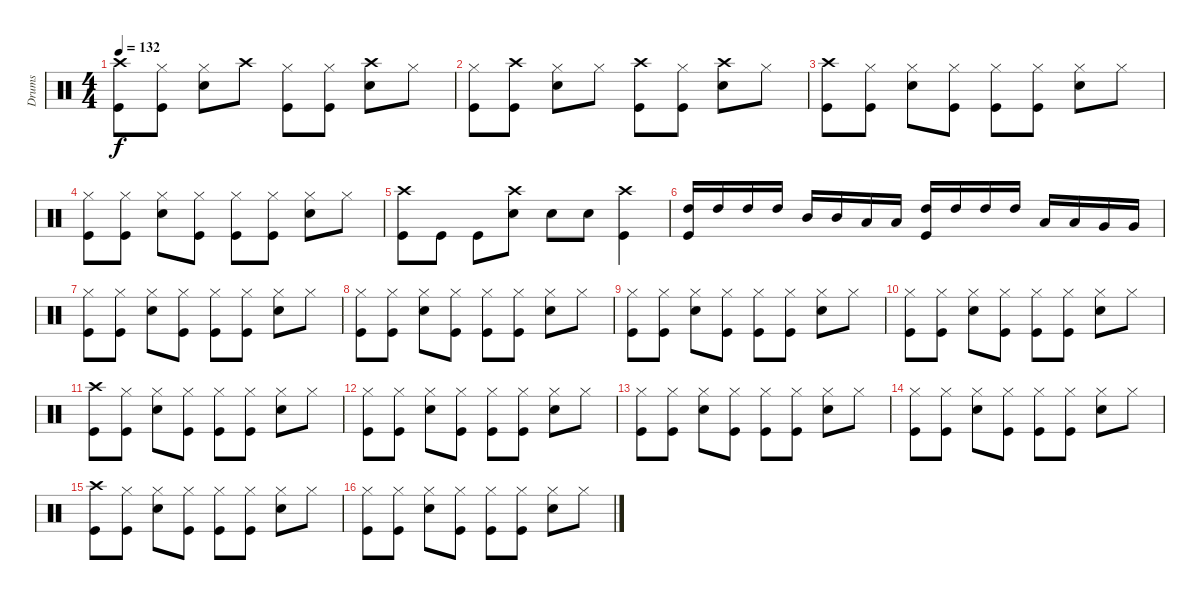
\track ("Drums" "Drums") {instrument percussion}
\staff {score}
\articulation defaults
\ts (4 4)
\tempo 132
\clef neutral
\ks c
("Crash high (hit)" "Kick (hit)").8{dy f} ("Hi-Hat (closed)" "Kick (hit)").8 ("Hi-Hat (closed)" "Snare (hit) 2").8 "Crash high (hit)".8 ("Hi-Hat (closed)" "Kick (hit)").8 ("Hi-Hat (closed)" "Kick (hit)").8 ("Crash high (hit)" "Snare (hit) 2").8 "Hi-Hat (closed)".8 |
("Hi-Hat (closed)" "Kick (hit)").8 ("Crash high (hit)" "Kick (hit)").8 ("Hi-Hat (closed)" "Snare (hit) 2").8 "Hi-Hat (closed)".8 ("Crash high (hit)" "Kick (hit)").8 ("Hi-Hat (closed)" "Kick (hit)").8 ("Crash high (hit)" "Snare (hit) 2").8 "Hi-Hat (closed)".8 |
("Kick (hit)" "Crash high (hit)").8 ("Kick (hit)" "Hi-Hat (closed)").8 ("Electric Snare (hit)" "Hi-Hat (closed)").8 ("Kick (hit)" "Hi-Hat (closed)").8 ("Kick (hit)" "Hi-Hat (closed)").8 ("Kick (hit)" "Hi-Hat (closed)").8 ("Electric Snare (hit)" "Hi-Hat (closed)").8 "Hi-Hat (closed)".8 |
("Kick (hit)" "Hi-Hat (closed)").8 ("Kick (hit)" "Hi-Hat (closed)").8 ("Snare (hit) 2" "Hi-Hat (closed)").8 ("Kick (hit)" "Hi-Hat (closed)").8 ("Kick (hit)" "Hi-Hat (closed)").8 ("Kick (hit)" "Hi-Hat (closed)").8 ("Snare (hit) 2" "Hi-Hat (closed)").8 "Hi-Hat (closed)".8 |
("Crash high (hit)" "Kick (hit)").8 "Kick (hit)".8 "Kick (hit)".8 ("Snare (hit) 2" "Crash high (hit)").8 "Snare (hit) 2".8 "Snare (hit) 2".8 ("Crash high (hit)" "Kick (hit)").4 |
("Kick (hit)" "High Tom (hit)").16 "High Tom (hit)".16 "High Tom (hit)".16 "High Tom (hit)".16 "Mid Tom (hit)".16 "Mid Tom (hit)".16 "Low Tom (hit)".16 "Low Tom (hit)".16 ("Kick (hit)" "High Tom (hit)").16 "High Tom (hit)".16 "High Tom (hit)".16 "High Tom (hit)".16 "Low Tom (hit)".16 "Low Tom (hit)".16 "Very Low Tom (hit)".16 "Very Low Tom (hit)".16 |
("Hi-Hat (closed)" "Kick (hit)").8 ("Hi-Hat (closed)" "Kick (hit)").8 ("Hi-Hat (closed)" "Snare (hit) 2").8 ("Hi-Hat (closed)" "Kick (hit)").8 ("Hi-Hat (closed)" "Kick (hit)").8 ("Kick (hit)" "Hi-Hat (closed)").8 ("Hi-Hat (closed)" "Snare (hit) 2").8 "Hi-Hat (closed)".8 |
("Kick (hit)" "Hi-Hat (closed)").8 ("Kick (hit)" "Hi-Hat (closed)").8 ("Hi-Hat (closed)" "Snare (hit) 2").8 ("Hi-Hat (closed)" "Kick (hit)").8 ("Kick (hit)" "Hi-Hat (closed)").8 ("Hi-Hat (closed)" "Kick (hit)").8 ("Snare (hit) 2" "Hi-Hat (closed)").8 "Hi-Hat (closed)".8 |
("Hi-Hat (closed)" "Kick (hit)").8 ("Hi-Hat (closed)" "Kick (hit)").8 ("Hi-Hat (closed)" "Snare (hit) 2").8 ("Hi-Hat (closed)" "Kick (hit)").8 ("Hi-Hat (closed)" "Kick (hit)").8 ("Kick (hit)" "Hi-Hat (closed)").8 ("Hi-Hat (closed)" "Snare (hit) 2").8 "Hi-Hat (closed)".8 |
("Kick (hit)" "Hi-Hat (closed)").8 ("Kick (hit)" "Hi-Hat (closed)").8 ("Hi-Hat (closed)" "Snare (hit) 2").8 ("Kick (hit)" "Hi-Hat (closed)").8 ("Kick (hit)" "Hi-Hat (closed)").8 ("Hi-Hat (closed)" "Kick (hit)").8 ("Snare (hit) 2" "Hi-Hat (closed)").8 "Hi-Hat (closed)".8 |
("Crash high (hit)" "Kick (hit)").8 ("Hi-Hat (closed)" "Kick (hit)").8 ("Hi-Hat (closed)" "Snare (hit) 2").8 ("Hi-Hat (closed)" "Kick (hit)").8 ("Hi-Hat (closed)" "Kick (hit)").8 ("Kick (hit)" "Hi-Hat (closed)").8 ("Hi-Hat (closed)" "Snare (hit) 2").8 "Hi-Hat (closed)".8 |
("Kick (hit)" "Hi-Hat (closed)").8 ("Kick (hit)" "Hi-Hat (closed)").8 ("Hi-Hat (closed)" "Snare (hit) 2").8 ("Hi-Hat (closed)" "Kick (hit)").8 ("Kick (hit)" "Hi-Hat (closed)").8 ("Hi-Hat (closed)" "Kick (hit)").8 ("Snare (hit) 2" "Hi-Hat (closed)").8 "Hi-Hat (closed)".8 |
("Hi-Hat (closed)" "Kick (hit)").8 ("Hi-Hat (closed)" "Kick (hit)").8 ("Hi-Hat (closed)" "Snare (hit) 2").8 ("Hi-Hat (closed)" "Kick (hit)").8 ("Hi-Hat (closed)" "Kick (hit)").8 ("Kick (hit)" "Hi-Hat (closed)").8 ("Hi-Hat (closed)" "Snare (hit) 2").8 "Hi-Hat (closed)".8 |
("Kick (hit)" "Hi-Hat (closed)").8 ("Kick (hit)" "Hi-Hat (closed)").8 ("Hi-Hat (closed)" "Snare (hit) 2").8 ("Hi-Hat (closed)" "Kick (hit)").8 ("Kick (hit)" "Hi-Hat (closed)").8 ("Hi-Hat (closed)" "Kick (hit)").8 ("Snare (hit) 2" "Hi-Hat (closed)").8 "Hi-Hat (closed)".8 |
("Crash high (hit)" "Kick (hit)").8 ("Hi-Hat (closed)" "Kick (hit)").8 ("Hi-Hat (closed)" "Snare (hit) 2").8 ("Hi-Hat (closed)" "Kick (hit)").8 ("Hi-Hat (closed)" "Kick (hit)").8 ("Kick (hit)" "Hi-Hat (closed)").8 ("Hi-Hat (closed)" "Snare (hit) 2").8 "Hi-Hat (closed)".8 |
("Kick (hit)" "Hi-Hat (closed)").8 ("Kick (hit)" "Hi-Hat (closed)").8 ("Hi-Hat (closed)" "Snare (hit) 2").8 ("Hi-Hat (closed)" "Kick (hit)").8 ("Kick (hit)" "Hi-Hat (closed)").8 ("Hi-Hat (closed)" "Kick (hit)").8 ("Snare (hit) 2" "Hi-Hat (closed)").8 "Hi-Hat (closed)".8
